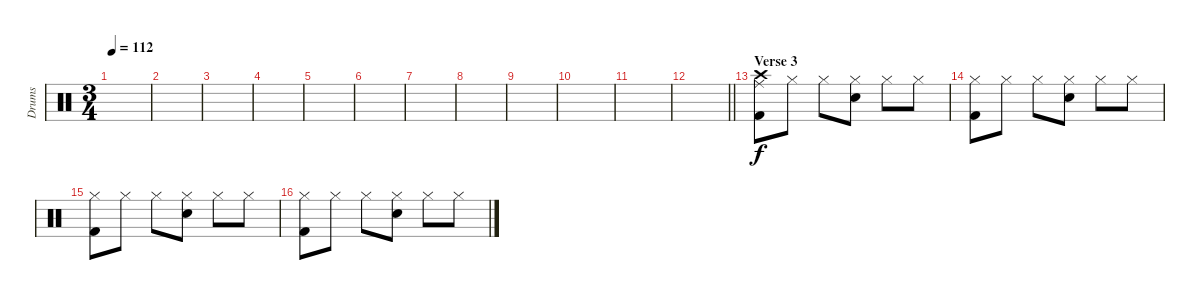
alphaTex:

\track ("Drums" "Drums") {instrument percussion}
\staff {score}
\articulation defaults
\ts (3 4)
\tempo 112
\clef neutral
\ks c
|
|
|
|
|
|
|
|
|
|
|
\barLineRight lightlight
|
\section ("" "Verse 3")
("Crash high (hit)" "Ride (middle)" "Kick (hit) 2").8 "Hi-Hat (closed)".8 "Hi-Hat (closed)".8 ("Hi-Hat (closed)" "Snare (hit) 2").8 "Hi-Hat (closed)".8 "Hi-Hat (closed)".8 |
("Hi-Hat (closed)" "Kick (hit) 2").8 "Hi-Hat (closed)".8 "Hi-Hat (closed)".8 ("Hi-Hat (closed)" "Snare (hit) 2").8 "Hi-Hat (closed)".8 "Hi-Hat (closed)".8 |
("Hi-Hat (closed)" "Kick (hit) 2").8 "Hi-Hat (closed)".8 "Hi-Hat (closed)".8 ("Hi-Hat (closed)" "Snare (hit) 2").8 "Hi-Hat (closed)".8 "Hi-Hat (closed)".8 |
("Hi-Hat (closed)" "Kick (hit) 2").8 "Hi-Hat (closed)".8 "Hi-Hat (closed)".8 ("Hi-Hat (closed)" "Snare (hit) 2").8 "Hi-Hat (closed)".8 "Hi-Hat (closed)".8
